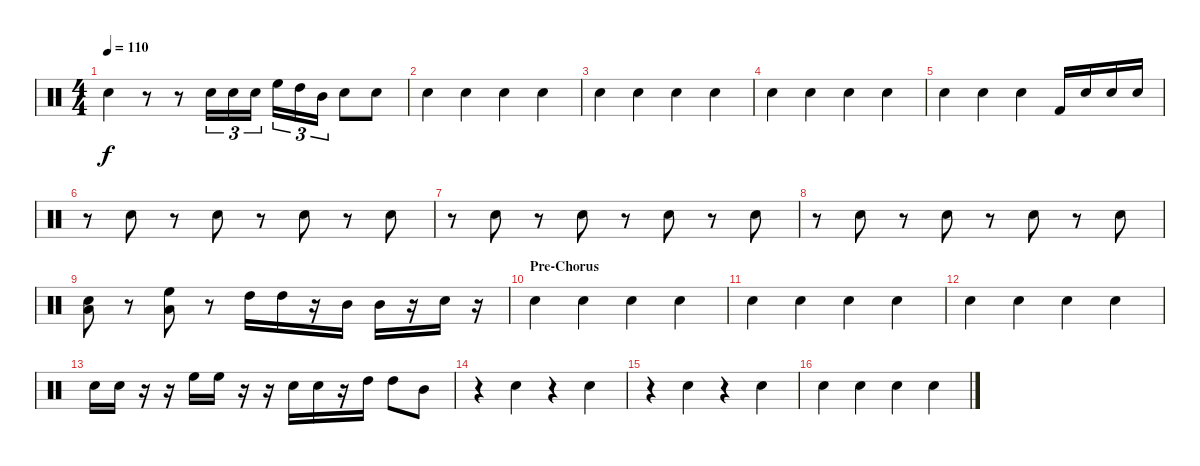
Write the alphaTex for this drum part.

\track "" {instrument percussion}
\staff {score}
\articulation defaults
\ts (4 4)
\tempo 110
\clef neutral
\ks c "Electric Snare (hit)".4{dy f}
r.8 r.8 "Electric Snare (hit)".16{tu (3 2)} "Electric Snare (hit)".16{tu (3 2)} "Electric Snare (hit)".16{tu (3 2)} "High Floor Tom (hit)".16{tu (3 2)} "High Tom (hit)".16{tu (3 2)} "Mid Tom (hit)".16{tu (3 2)} "Electric Snare (hit)".8 "Electric Snare (hit)".8 |
"Electric Snare (hit)".4 "Electric Snare (hit)".4 "Electric Snare (hit)".4 "Electric Snare (hit)".4 |
"Electric Snare (hit)".4 "Electric Snare (hit)".4 "Electric Snare (hit)".4 "Electric Snare (hit)".4 |
"Electric Snare (hit)".4 "Electric Snare (hit)".4 "Electric Snare (hit)".4 "Electric Snare (hit)".4 |
"Electric Snare (hit)".4 "Electric Snare (hit)".4 "Electric Snare (hit)".4 "Kick (hit) 2".16 "Electric Snare (hit)".16 "Electric Snare (hit)".16 "Electric Snare (hit)".16 |
r.8 "Electric Snare (hit)".8 r.8 "Electric Snare (hit)".8 r.8 "Electric Snare (hit)".8 r.8 "Electric Snare (hit)".8 |
r.8 "Electric Snare (hit)".8 r.8 "Electric Snare (hit)".8 r.8 "Electric Snare (hit)".8 r.8 "Electric Snare (hit)".8 |
r.8 "Electric Snare (hit)".8 r.8 "Electric Snare (hit)".8 r.8 "Electric Snare (hit)".8 r.8 "Electric Snare (hit)".8 |
("Low Tom (hit)" "Electric Snare (hit)").8 r.8 ("Low Tom (hit)" "High Floor Tom (hit)").8 r.8 "High Tom (hit)".16 "High Tom (hit)".16 r.16 "Mid Tom (hit)".16 "Mid Tom (hit)".16 r.16 "Electric Snare (hit)".16 r.16 |
\section ("" "Pre-Chorus")
"Electric Snare (hit)".4 "Electric Snare (hit)".4 "Electric Snare (hit)".4 "Electric Snare (hit)".4 |
"Electric Snare (hit)".4 "Electric Snare (hit)".4 "Electric Snare (hit)".4 "Electric Snare (hit)".4 |
"Electric Snare (hit)".4 "Electric Snare (hit)".4 "Electric Snare (hit)".4 "Electric Snare (hit)".4 |
"Electric Snare (hit)".16 "Electric Snare (hit)".16 r.16 r.16 "High Floor Tom (hit)".16 "High Floor Tom (hit)".16 r.16 r.16 "Electric Snare (hit)".16 "Electric Snare (hit)".16 r.16 "High Tom (hit)".16 "High Tom (hit)".8 "Mid Tom (hit)".8 |
r.4 "Electric Snare (hit)".4 r.4 "Electric Snare (hit)".4 |
r.4 "Electric Snare (hit)".4 r.4 "Electric Snare (hit)".4 |
"Electric Snare (hit)".4 "Electric Snare (hit)".4 "Electric Snare (hit)".4 "Electric Snare (hit)".4
